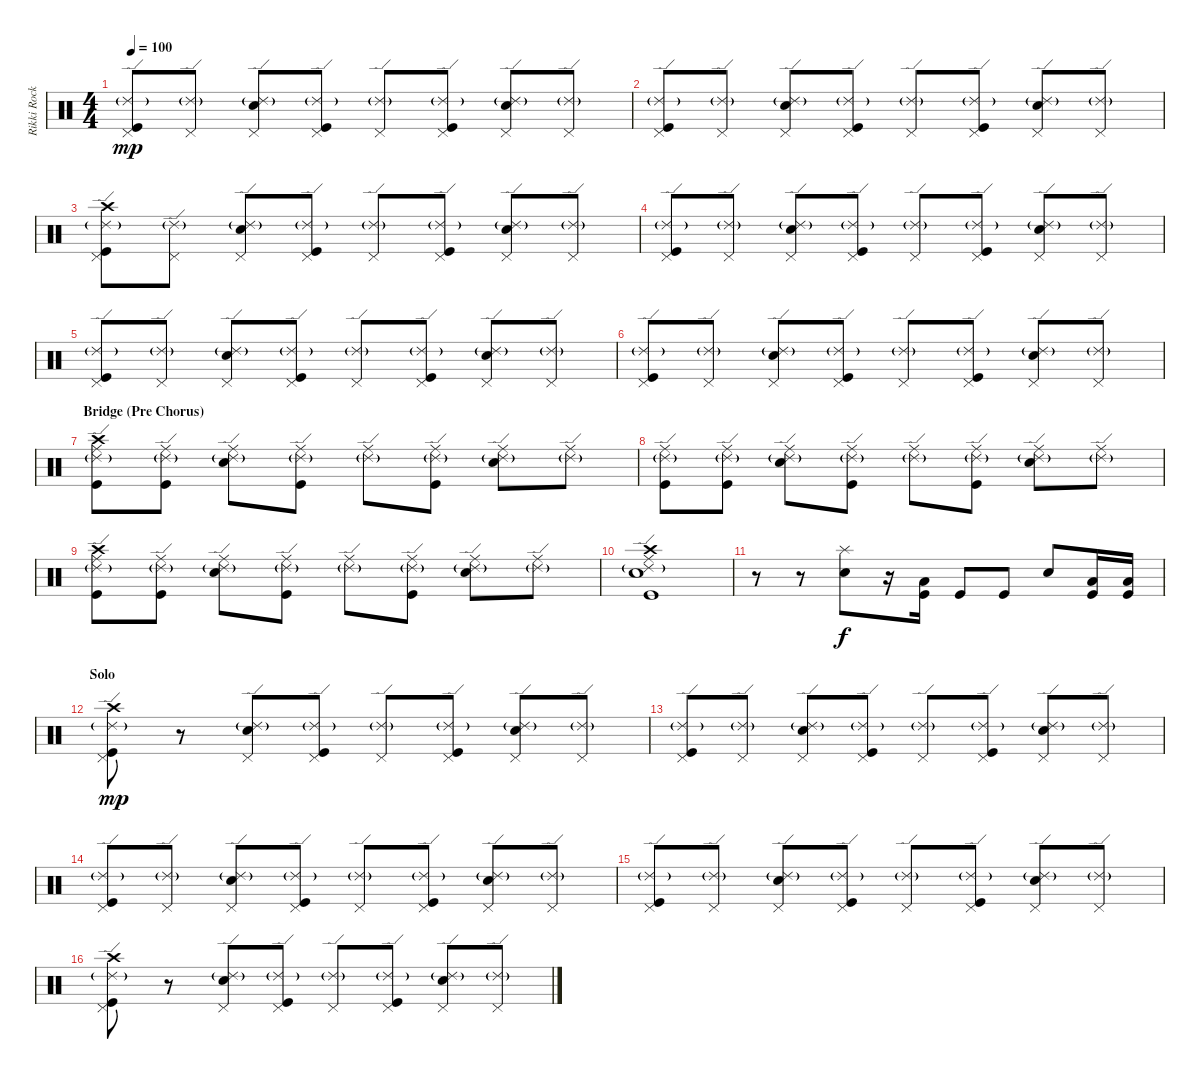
\track ("Rikki Rockett Drums" "Rikki Rock") {instrument percussion}
\staff {score}
\articulation defaults
\ts (4 4)
\tempo 100
\clef neutral
\ks c
("Ride (edge) 2"{g} "Pedal Hi-Hat (hit)" "Kick (hit)").8{dy mp} ("Ride (edge) 2"{g} "Pedal Hi-Hat (hit)").8 ("Ride (edge) 2"{g} "Pedal Hi-Hat (hit)" "Snare (hit) 2").8 ("Ride (edge) 2"{g} "Pedal Hi-Hat (hit)" "Kick (hit)").8 ("Ride (edge) 2"{g} "Pedal Hi-Hat (hit)").8 ("Ride (edge) 2"{g} "Pedal Hi-Hat (hit)" "Kick (hit)").8 ("Ride (edge) 2"{g} "Pedal Hi-Hat (hit)" "Snare (hit) 2").8 ("Ride (edge) 2"{g} "Pedal Hi-Hat (hit)").8 |
("Ride (edge) 2"{g} "Pedal Hi-Hat (hit)" "Kick (hit)").8 ("Ride (edge) 2"{g} "Pedal Hi-Hat (hit)").8 ("Ride (edge) 2"{g} "Pedal Hi-Hat (hit)" "Snare (hit) 2").8 ("Ride (edge) 2"{g} "Pedal Hi-Hat (hit)" "Kick (hit)").8 ("Ride (edge) 2"{g} "Pedal Hi-Hat (hit)").8 ("Ride (edge) 2"{g} "Pedal Hi-Hat (hit)" "Kick (hit)").8 ("Ride (edge) 2"{g} "Pedal Hi-Hat (hit)" "Snare (hit) 2").8 ("Ride (edge) 2"{g} "Pedal Hi-Hat (hit)").8 |
("Ride (edge) 2"{g} "Pedal Hi-Hat (hit)" "Crash high (hit)" "Kick (hit)").8 ("Ride (edge) 2"{g} "Pedal Hi-Hat (hit)").8 ("Ride (edge) 2"{g} "Pedal Hi-Hat (hit)" "Snare (hit) 2").8 ("Ride (edge) 2"{g} "Pedal Hi-Hat (hit)" "Kick (hit)").8 ("Ride (edge) 2"{g} "Pedal Hi-Hat (hit)").8 ("Ride (edge) 2"{g} "Pedal Hi-Hat (hit)" "Kick (hit)").8 ("Ride (edge) 2"{g} "Pedal Hi-Hat (hit)" "Snare (hit) 2").8 ("Ride (edge) 2"{g} "Pedal Hi-Hat (hit)").8 |
("Ride (edge) 2"{g} "Pedal Hi-Hat (hit)" "Kick (hit)").8 ("Ride (edge) 2"{g} "Pedal Hi-Hat (hit)").8 ("Ride (edge) 2"{g} "Pedal Hi-Hat (hit)" "Snare (hit) 2").8 ("Ride (edge) 2"{g} "Pedal Hi-Hat (hit)" "Kick (hit)").8 ("Ride (edge) 2"{g} "Pedal Hi-Hat (hit)").8 ("Ride (edge) 2"{g} "Pedal Hi-Hat (hit)" "Kick (hit)").8 ("Ride (edge) 2"{g} "Pedal Hi-Hat (hit)" "Snare (hit) 2").8 ("Ride (edge) 2"{g} "Pedal Hi-Hat (hit)").8 |
("Ride (edge) 2"{g} "Pedal Hi-Hat (hit)" "Kick (hit)").8 ("Ride (edge) 2"{g} "Pedal Hi-Hat (hit)").8 ("Ride (edge) 2"{g} "Pedal Hi-Hat (hit)" "Snare (hit) 2").8 ("Ride (edge) 2"{g} "Pedal Hi-Hat (hit)" "Kick (hit)").8 ("Ride (edge) 2"{g} "Pedal Hi-Hat (hit)").8 ("Ride (edge) 2"{g} "Pedal Hi-Hat (hit)" "Kick (hit)").8 ("Ride (edge) 2"{g} "Pedal Hi-Hat (hit)" "Snare (hit) 2").8 ("Ride (edge) 2"{g} "Pedal Hi-Hat (hit)").8 |
("Ride (edge) 2"{g} "Pedal Hi-Hat (hit)" "Kick (hit)").8 ("Ride (edge) 2"{g} "Pedal Hi-Hat (hit)").8 ("Ride (edge) 2"{g} "Pedal Hi-Hat (hit)" "Snare (hit) 2").8 ("Ride (edge) 2"{g} "Pedal Hi-Hat (hit)" "Kick (hit)").8 ("Ride (edge) 2"{g} "Pedal Hi-Hat (hit)").8 ("Ride (edge) 2"{g} "Pedal Hi-Hat (hit)" "Kick (hit)").8 ("Ride (edge) 2"{g} "Pedal Hi-Hat (hit)" "Snare (hit) 2").8 ("Ride (edge) 2"{g} "Pedal Hi-Hat (hit)").8 |
\section ("" "Bridge (Pre Chorus)")
("Ride (edge) 2"{g} "Ride (middle)" "Crash high (hit)" "Kick (hit)").8 ("Ride (edge) 2"{g} "Ride (middle)" "Kick (hit)").8 ("Ride (edge) 2"{g} "Ride (middle)" "Snare (hit) 2").8 ("Ride (edge) 2"{g} "Ride (middle)" "Kick (hit)").8 ("Ride (edge) 2"{g} "Ride (middle)").8 ("Ride (edge) 2"{g} "Ride (middle)" "Kick (hit)").8 ("Ride (edge) 2"{g} "Ride (middle)" "Snare (hit) 2").8 ("Ride (edge) 2"{g} "Ride (middle)").8 |
("Ride (edge) 2"{g} "Ride (middle)" "Kick (hit)").8 ("Ride (edge) 2"{g} "Ride (middle)" "Kick (hit)").8 ("Ride (edge) 2"{g} "Ride (middle)" "Snare (hit) 2").8 ("Ride (edge) 2"{g} "Ride (middle)" "Kick (hit)").8 ("Ride (edge) 2"{g} "Ride (middle)").8 ("Ride (edge) 2"{g} "Ride (middle)" "Kick (hit)").8 ("Ride (edge) 2"{g} "Ride (middle)" "Snare (hit) 2").8 ("Ride (edge) 2"{g} "Ride (middle)").8 |
("Ride (edge) 2"{g} "Ride (middle)" "Crash high (hit)" "Kick (hit)").8 ("Ride (edge) 2"{g} "Ride (middle)" "Kick (hit)").8 ("Ride (edge) 2"{g} "Ride (middle)" "Snare (hit) 2").8 ("Ride (edge) 2"{g} "Ride (middle)" "Kick (hit)").8 ("Ride (edge) 2"{g} "Ride (middle)").8 ("Ride (edge) 2"{g} "Ride (middle)" "Kick (hit)").8 ("Ride (edge) 2"{g} "Ride (middle)" "Snare (hit) 2").8 ("Ride (edge) 2"{g} "Ride (middle)").8 |
("Ride (edge) 2"{g} "Ride (middle)" "Crash high (hit)" "Snare (hit) 2" "Kick (hit)").1 |
r.8 r.8 ("Splash (hit)" "Snare (hit) 2").8{dy f} r.16 ("Low Tom (hit)" "Kick (hit)").16 "Kick (hit)".8 "Kick (hit)".8 "Snare (hit) 2".8 ("Low Tom (hit)" "Kick (hit)").16 ("Low Tom (hit)" "Kick (hit)").16 |
\section ("" "Solo")
("Ride (edge) 2"{g} "Pedal Hi-Hat (hit)" "Crash high (hit)" "Kick (hit)").8{dy mp} r.8 ("Ride (edge) 2"{g} "Pedal Hi-Hat (hit)" "Snare (hit) 2").8 ("Ride (edge) 2"{g} "Pedal Hi-Hat (hit)" "Kick (hit)").8 ("Ride (edge) 2"{g} "Pedal Hi-Hat (hit)").8 ("Ride (edge) 2"{g} "Pedal Hi-Hat (hit)" "Kick (hit)").8 ("Ride (edge) 2"{g} "Pedal Hi-Hat (hit)" "Snare (hit) 2").8 ("Ride (edge) 2"{g} "Pedal Hi-Hat (hit)").8 |
("Ride (edge) 2"{g} "Pedal Hi-Hat (hit)" "Kick (hit)").8 ("Ride (edge) 2"{g} "Pedal Hi-Hat (hit)").8 ("Ride (edge) 2"{g} "Pedal Hi-Hat (hit)" "Snare (hit) 2").8 ("Ride (edge) 2"{g} "Pedal Hi-Hat (hit)" "Kick (hit)").8 ("Ride (edge) 2"{g} "Pedal Hi-Hat (hit)").8 ("Ride (edge) 2"{g} "Pedal Hi-Hat (hit)" "Kick (hit)").8 ("Ride (edge) 2"{g} "Pedal Hi-Hat (hit)" "Snare (hit) 2").8 ("Ride (edge) 2"{g} "Pedal Hi-Hat (hit)").8 |
("Ride (edge) 2"{g} "Pedal Hi-Hat (hit)" "Kick (hit)").8 ("Ride (edge) 2"{g} "Pedal Hi-Hat (hit)").8 ("Ride (edge) 2"{g} "Pedal Hi-Hat (hit)" "Snare (hit) 2").8 ("Ride (edge) 2"{g} "Pedal Hi-Hat (hit)" "Kick (hit)").8 ("Ride (edge) 2"{g} "Pedal Hi-Hat (hit)").8 ("Ride (edge) 2"{g} "Pedal Hi-Hat (hit)" "Kick (hit)").8 ("Ride (edge) 2"{g} "Pedal Hi-Hat (hit)" "Snare (hit) 2").8 ("Ride (edge) 2"{g} "Pedal Hi-Hat (hit)").8 |
("Ride (edge) 2"{g} "Pedal Hi-Hat (hit)" "Kick (hit)").8 ("Ride (edge) 2"{g} "Pedal Hi-Hat (hit)").8 ("Ride (edge) 2"{g} "Pedal Hi-Hat (hit)" "Snare (hit) 2").8 ("Ride (edge) 2"{g} "Pedal Hi-Hat (hit)" "Kick (hit)").8 ("Ride (edge) 2"{g} "Pedal Hi-Hat (hit)").8 ("Ride (edge) 2"{g} "Pedal Hi-Hat (hit)" "Kick (hit)").8 ("Ride (edge) 2"{g} "Pedal Hi-Hat (hit)" "Snare (hit) 2").8 ("Ride (edge) 2"{g} "Pedal Hi-Hat (hit)").8 |
("Ride (edge) 2"{g} "Pedal Hi-Hat (hit)" "Crash high (hit)" "Kick (hit)").8 r.8 ("Ride (edge) 2"{g} "Pedal Hi-Hat (hit)" "Snare (hit) 2").8 ("Ride (edge) 2"{g} "Pedal Hi-Hat (hit)" "Kick (hit)").8 ("Ride (edge) 2"{g} "Pedal Hi-Hat (hit)").8 ("Ride (edge) 2"{g} "Pedal Hi-Hat (hit)" "Kick (hit)").8 ("Ride (edge) 2"{g} "Pedal Hi-Hat (hit)" "Snare (hit) 2").8 ("Ride (edge) 2"{g} "Pedal Hi-Hat (hit)").8
